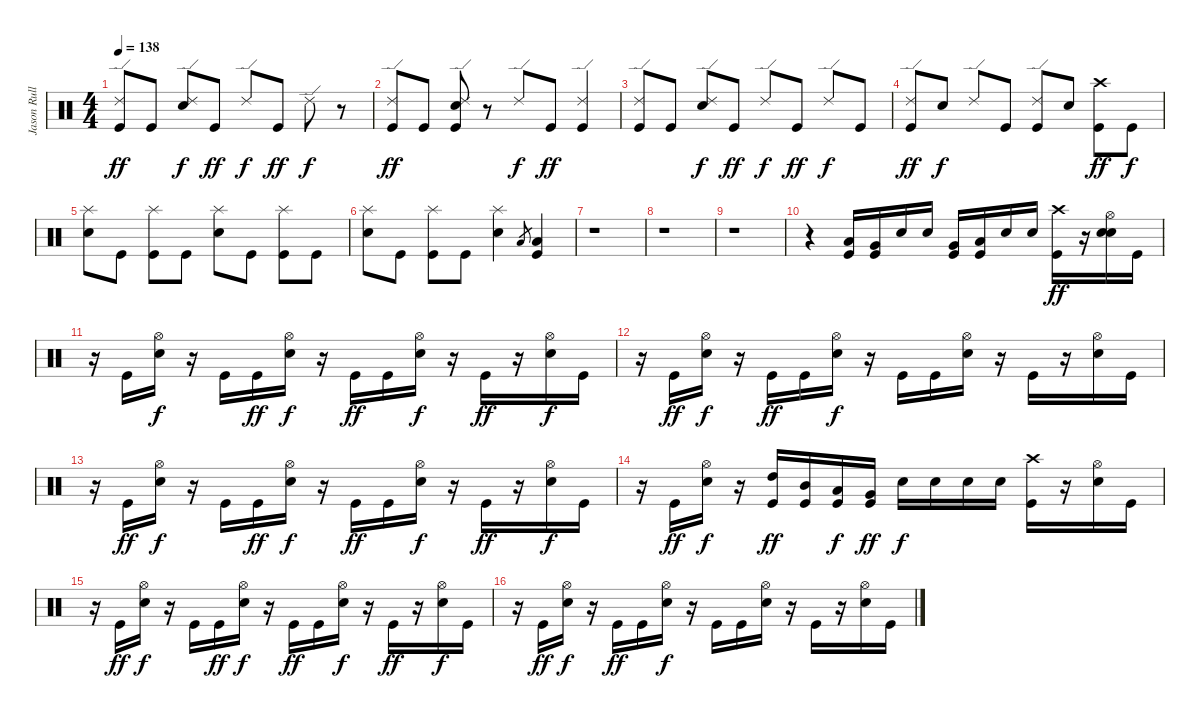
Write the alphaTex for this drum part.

\track ("Jason Rullo" "Jason Rull") {instrument percussion}
\staff {score}
\articulation defaults
\ts (4 4)
\tempo 138
\clef neutral
\ks c
("Kick (hit)" "Ride (edge) 2").8{dy ff} "Kick (hit)".8 ("Snare (hit) 2" "Ride (edge) 2").8{dy f} "Kick (hit)".8{dy ff} "Ride (edge) 2".8{dy f} "Kick (hit)".8{dy ff} "Ride (edge) 2".8{dy f} r.8 |
("Kick (hit)" "Ride (edge) 2").8{dy ff} "Kick (hit)".8 ("Kick (hit)" "Snare (hit) 2" "Ride (edge) 2").8 r.8 "Ride (edge) 2".8{dy f} "Kick (hit)".8{dy ff} ("Kick (hit)" "Ride (edge) 2").4 |
("Kick (hit)" "Ride (edge) 2").8 "Kick (hit)".8 ("Snare (hit) 2" "Ride (edge) 2").8{dy f} "Kick (hit)".8{dy ff} "Ride (edge) 2".8{dy f} "Kick (hit)".8{dy ff} "Ride (edge) 2".8{dy f} "Kick (hit)".8 |
("Kick (hit)" "Ride (edge) 2").8{dy ff} "Snare (hit) 2".8{dy f} "Ride (edge) 2".8 "Kick (hit)".8 ("Kick (hit)" "Ride (edge) 2").8 "Snare (hit) 2".8 ("Kick (hit)" "Crash high (hit)").8{dy ff} "Kick (hit)".8{dy f} |
("Snare (hit) 2" "Splash (hit)").8 "Kick (hit)".8 ("Kick (hit)" "Splash (hit)").8 "Kick (hit)".8 ("Snare (hit) 2" "Splash (hit)").8 "Kick (hit)".8 ("Kick (hit)" "Splash (hit)").8 "Kick (hit)".8 |
("Snare (hit) 2" "Splash (hit)").8 "Kick (hit)".8 ("Kick (hit)" "Splash (hit)").8 "Kick (hit)".8 ("Snare (hit) 2" "Splash (hit)").4 "Low Tom (hit)".8{gr} ("Kick (hit)" "Low Tom (hit)").4 |
r.1 |
r.1 |
r.1 |
r.4 ("Kick (hit)" "Low Tom (hit)").16 ("Kick (hit)" "Very Low Tom (hit)").16 "Snare (hit) 2".16 "Snare (hit) 2".16 ("Kick (hit)" "Very Low Tom (hit)").16 ("Kick (hit)" "Low Floor Tom (hit)").16 "Snare (hit) 2".16 "Snare (hit) 2".16 ("Kick (hit)" "Crash high (hit)").16{dy ff} r.16 ("Snare (hit)" "Snare (hit) 2" "Hi-Hat (open)").16 "Kick (hit)".16 |
r.16 "Kick (hit)".16 ("Snare (hit) 2" "Hi-Hat (open)").16{dy f} r.16 "Kick (hit)".16 "Kick (hit)".16{dy ff} ("Snare (hit) 2" "Hi-Hat (open)").16{dy f} r.16 "Kick (hit)".16{dy ff} "Kick (hit)".16 ("Snare (hit) 2" "Hi-Hat (open)").16{dy f} r.16 "Kick (hit)".16{dy ff} r.16 ("Snare (hit) 2" "Hi-Hat (open)").16{dy f} "Kick (hit)".16 |
r.16 "Kick (hit)".16{dy ff} ("Snare (hit) 2" "Hi-Hat (open)").16{dy f} r.16 "Kick (hit)".16{dy ff} "Kick (hit)".16 ("Snare (hit) 2" "Hi-Hat (open)").16{dy f} r.16 "Kick (hit)".16 "Kick (hit)".16 ("Snare (hit) 2" "Hi-Hat (open)").16 r.16 "Kick (hit)".16 r.16 ("Snare (hit) 2" "Hi-Hat (open)").16 "Kick (hit)".16 |
r.16 "Kick (hit)".16{dy ff} ("Snare (hit) 2" "Hi-Hat (open)").16{dy f} r.16 "Kick (hit)".16 "Kick (hit)".16{dy ff} ("Snare (hit) 2" "Hi-Hat (open)").16{dy f} r.16 "Kick (hit)".16{dy ff} "Kick (hit)".16 ("Snare (hit) 2" "Hi-Hat (open)").16{dy f} r.16 "Kick (hit)".16{dy ff} r.16 ("Snare (hit) 2" "Hi-Hat (open)").16{dy f} "Kick (hit)".16 |
r.16 "Kick (hit)".16{dy ff} ("Snare (hit) 2" "Hi-Hat (open)").16{dy f} r.16 ("Kick (hit)" "High Tom (hit)").16{dy ff} ("Kick (hit)" "Mid Tom (hit)").16 ("Kick (hit)" "Low Tom (hit)").16{dy f} ("Kick (hit)" "Very Low Tom (hit)").16{dy ff} "Snare (hit) 2".16{dy f} "Snare (hit) 2".16 "Snare (hit) 2".16 "Snare (hit) 2".16 ("Kick (hit)" "Crash high (hit)").16 r.16 ("Snare (hit) 2" "Hi-Hat (open)").16 "Kick (hit)".16 |
r.16 "Kick (hit)".16{dy ff} ("Snare (hit) 2" "Hi-Hat (open)").16{dy f} r.16 "Kick (hit)".16 "Kick (hit)".16{dy ff} ("Snare (hit) 2" "Hi-Hat (open)").16{dy f} r.16 "Kick (hit)".16{dy ff} "Kick (hit)".16 ("Snare (hit) 2" "Hi-Hat (open)").16{dy f} r.16 "Kick (hit)".16{dy ff} r.16 ("Snare (hit) 2" "Hi-Hat (open)").16{dy f} "Kick (hit)".16 |
r.16 "Kick (hit)".16{dy ff} ("Snare (hit) 2" "Hi-Hat (open)").16{dy f} r.16 "Kick (hit)".16{dy ff} "Kick (hit)".16 ("Snare (hit) 2" "Hi-Hat (open)").16{dy f} r.16 "Kick (hit)".16 "Kick (hit)".16 ("Snare (hit) 2" "Hi-Hat (open)").16 r.16 "Kick (hit)".16 r.16 ("Snare (hit) 2" "Hi-Hat (open)").16 "Kick (hit)".16
